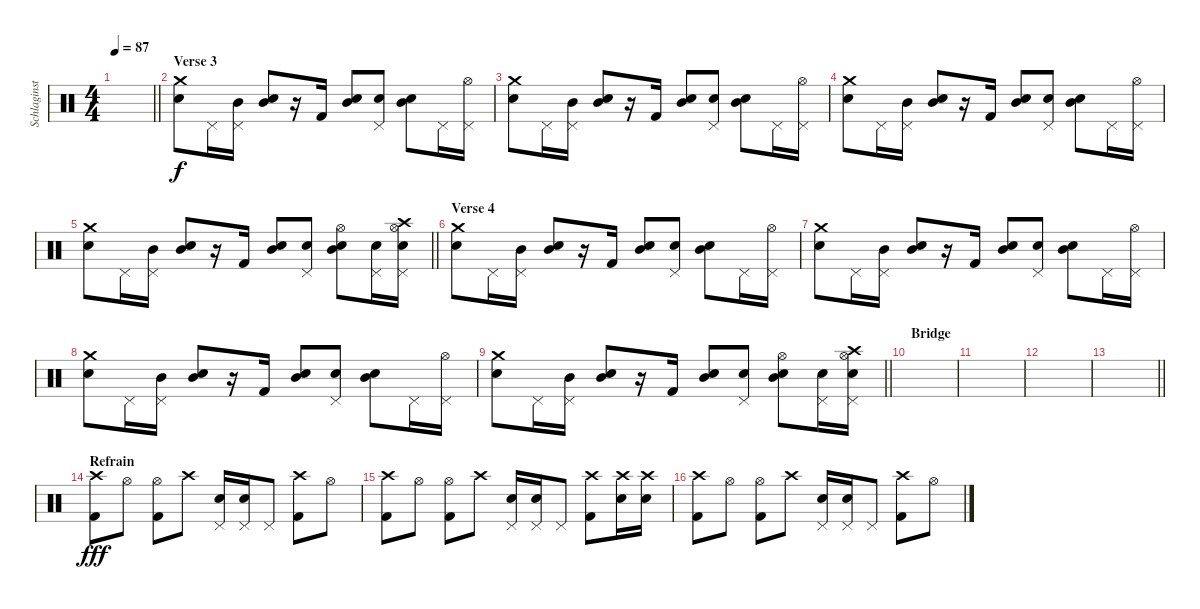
\track ("Schlaginstrumente -  Auswahl" "Schlaginst") {instrument percussion}
\staff {score}
\articulation defaults
\ts (4 4)
\tempo 87
\clef neutral
\barLineRight lightlight
\ks c
|
\section ("" "Verse 3")
("Crash medium (hit)" "Snare (hit) 2").8 "Pedal Hi-Hat (hit)".16 ("Mid Tom (hit)" "Pedal Hi-Hat (hit)").16 ("Mid Tom (hit)" "Snare (hit) 2").8 r.16 "Kick (hit) 2".16 ("Mid Tom (hit)" "Snare (hit) 2").8 ("Snare (hit) 2" "Pedal Hi-Hat (hit)").8 ("Mid Tom (hit)" "Snare (hit) 2").8 "Pedal Hi-Hat (hit)".16 ("Hi-Hat (open)" "Pedal Hi-Hat (hit)").16 |
("Crash medium (hit)" "Snare (hit) 2").8 "Pedal Hi-Hat (hit)".16 ("Mid Tom (hit)" "Pedal Hi-Hat (hit)").16 ("Mid Tom (hit)" "Snare (hit) 2").8 r.16 "Kick (hit) 2".16 ("Mid Tom (hit)" "Snare (hit) 2").8 ("Snare (hit) 2" "Pedal Hi-Hat (hit)").8 ("Mid Tom (hit)" "Snare (hit) 2").8 "Pedal Hi-Hat (hit)".16 ("Hi-Hat (open)" "Pedal Hi-Hat (hit)").16 |
("Crash medium (hit)" "Snare (hit) 2").8 "Pedal Hi-Hat (hit)".16 ("Mid Tom (hit)" "Pedal Hi-Hat (hit)").16 ("Mid Tom (hit)" "Snare (hit) 2").8 r.16 "Kick (hit) 2".16 ("Mid Tom (hit)" "Snare (hit) 2").8 ("Snare (hit) 2" "Pedal Hi-Hat (hit)").8 ("Mid Tom (hit)" "Snare (hit) 2").8 "Pedal Hi-Hat (hit)".16 ("Hi-Hat (open)" "Pedal Hi-Hat (hit)").16 |
\barLineRight lightlight
("Crash medium (hit)" "Snare (hit) 2").8 "Pedal Hi-Hat (hit)".16 ("Mid Tom (hit)" "Pedal Hi-Hat (hit)").16 ("Mid Tom (hit)" "Snare (hit) 2").8 r.16 "Kick (hit) 2".16 ("Mid Tom (hit)" "Snare (hit) 2").8 ("Snare (hit) 2" "Pedal Hi-Hat (hit)").8 ("Mid Tom (hit)" "Hi-Hat (open)" "Snare (hit) 2").8 ("Snare (hit) 2" "Pedal Hi-Hat (hit)").16 ("Hi-Hat (open)" "Crash high (hit)" "Snare (hit) 2" "Pedal Hi-Hat (hit)").16 |
\section ("" "Verse 4")
("Crash medium (hit)" "Snare (hit) 2").8 "Pedal Hi-Hat (hit)".16 ("Mid Tom (hit)" "Pedal Hi-Hat (hit)").16 ("Mid Tom (hit)" "Snare (hit) 2").8 r.16 "Kick (hit) 2".16 ("Mid Tom (hit)" "Snare (hit) 2").8 ("Snare (hit) 2" "Pedal Hi-Hat (hit)").8 ("Mid Tom (hit)" "Snare (hit) 2").8 "Pedal Hi-Hat (hit)".16 ("Hi-Hat (open)" "Pedal Hi-Hat (hit)").16 |
("Crash medium (hit)" "Snare (hit) 2").8 "Pedal Hi-Hat (hit)".16 ("Mid Tom (hit)" "Pedal Hi-Hat (hit)").16 ("Mid Tom (hit)" "Snare (hit) 2").8 r.16 "Kick (hit) 2".16 ("Mid Tom (hit)" "Snare (hit) 2").8 ("Snare (hit) 2" "Pedal Hi-Hat (hit)").8 ("Mid Tom (hit)" "Snare (hit) 2").8 "Pedal Hi-Hat (hit)".16 ("Hi-Hat (open)" "Pedal Hi-Hat (hit)").16 |
("Crash medium (hit)" "Snare (hit) 2").8 "Pedal Hi-Hat (hit)".16 ("Mid Tom (hit)" "Pedal Hi-Hat (hit)").16 ("Mid Tom (hit)" "Snare (hit) 2").8 r.16 "Kick (hit) 2".16 ("Mid Tom (hit)" "Snare (hit) 2").8 ("Snare (hit) 2" "Pedal Hi-Hat (hit)").8 ("Mid Tom (hit)" "Snare (hit) 2").8 "Pedal Hi-Hat (hit)".16 ("Hi-Hat (open)" "Pedal Hi-Hat (hit)").16 |
\barLineRight lightlight
("Crash medium (hit)" "Snare (hit) 2").8 "Pedal Hi-Hat (hit)".16 ("Mid Tom (hit)" "Pedal Hi-Hat (hit)").16 ("Mid Tom (hit)" "Snare (hit) 2").8 r.16 "Kick (hit) 2".16 ("Mid Tom (hit)" "Snare (hit) 2").8 ("Snare (hit) 2" "Pedal Hi-Hat (hit)").8 ("Mid Tom (hit)" "Hi-Hat (open)" "Snare (hit) 2").8 ("Snare (hit) 2" "Pedal Hi-Hat (hit)").16 ("Hi-Hat (open)" "Crash high (hit)" "Snare (hit) 2" "Pedal Hi-Hat (hit)").16 |
\section ("" "Bridge")
|
|
|
\barLineRight lightlight
|
\section ("" "Refrain")
("Crash high (hit)" "Kick (hit) 2").8{dy fff} "Hi-Hat (open)".8 ("Hi-Hat (open)" "Kick (hit) 2").8 "Crash high (hit)".8 ("Pedal Hi-Hat (hit)" "Snare (hit) 2").16 ("Pedal Hi-Hat (hit)" "Snare (hit) 2").16 "Pedal Hi-Hat (hit)".8 ("Crash high (hit)" "Kick (hit) 2").8 "Hi-Hat (open)".8 |
("Crash high (hit)" "Kick (hit) 2").8 "Hi-Hat (open)".8 ("Hi-Hat (open)" "Kick (hit) 2").8 "Crash high (hit)".8 ("Pedal Hi-Hat (hit)" "Snare (hit) 2").16 ("Pedal Hi-Hat (hit)" "Snare (hit) 2").16 "Pedal Hi-Hat (hit)".8 ("Crash high (hit)" "Kick (hit) 2").8 ("Crash high (hit)" "Snare (hit) 2").16 ("Crash high (hit)" "Snare (hit) 2").16 |
("Crash high (hit)" "Kick (hit) 2").8 "Hi-Hat (open)".8 ("Hi-Hat (open)" "Kick (hit) 2").8 "Crash high (hit)".8 ("Pedal Hi-Hat (hit)" "Snare (hit) 2").16 ("Pedal Hi-Hat (hit)" "Snare (hit) 2").16 "Pedal Hi-Hat (hit)".8 ("Crash high (hit)" "Kick (hit) 2").8 "Hi-Hat (open)".8
